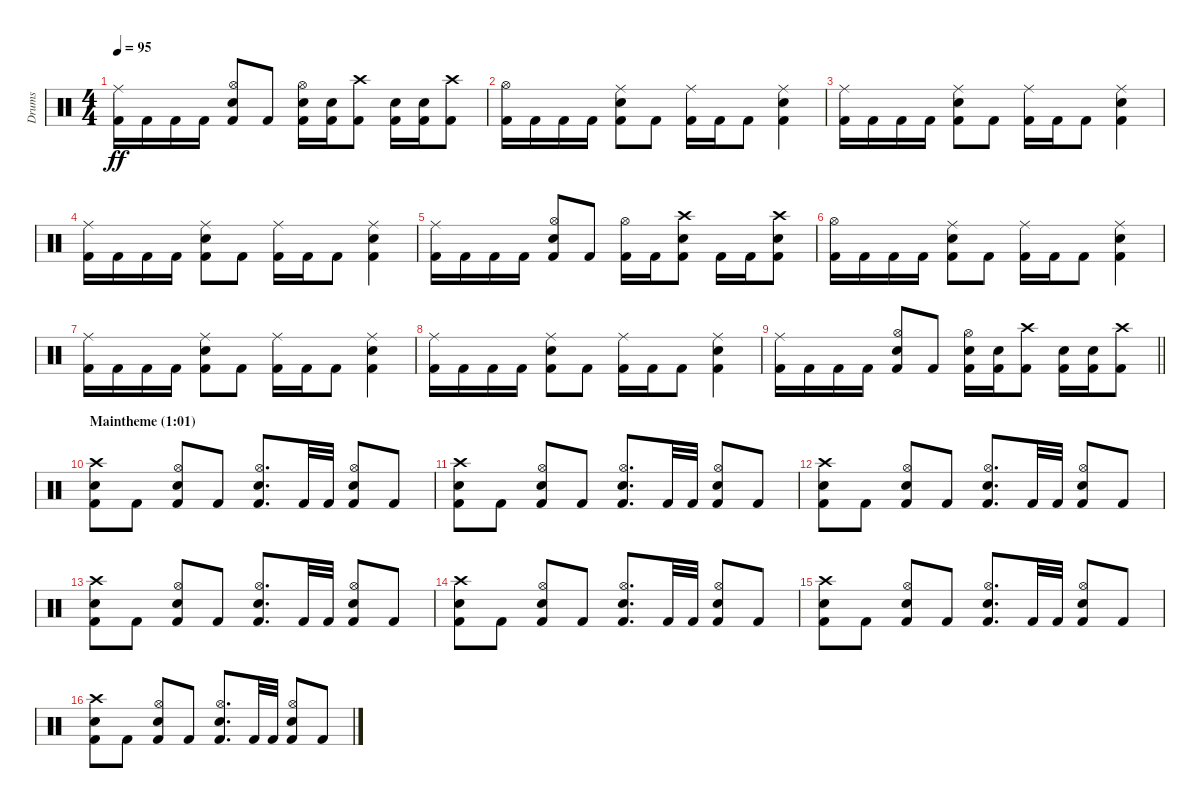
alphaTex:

\track ("Drums" "Drums") {instrument percussion}
\staff {score}
\articulation defaults
\ts (4 4)
\tempo 95
\clef neutral
\ks c
("Ride (middle)" "Kick (hit) 2").16{dy ff} "Kick (hit) 2".16 "Kick (hit) 2".16 "Kick (hit) 2".16 ("Hi-Hat (open)" "Snare (hit) 2" "Kick (hit) 2").8 "Kick (hit) 2".8 ("Hi-Hat (open)" "Snare (hit) 2" "Kick (hit) 2").16 ("Snare (hit) 2" "Kick (hit) 2").16 ("Crash high (hit)" "Kick (hit) 2").8 ("Snare (hit) 2" "Kick (hit) 2").16 ("Snare (hit) 2" "Kick (hit) 2").16 ("Crash high (hit)" "Kick (hit) 2").8 |
("Hi-Hat (open)" "Kick (hit) 2").16 "Kick (hit) 2".16 "Kick (hit) 2".16 "Kick (hit) 2".16 ("Ride (middle)" "Snare (hit) 2" "Kick (hit) 2").8 "Kick (hit) 2".8 ("Ride (middle)" "Kick (hit) 2").16 "Kick (hit) 2".16 "Kick (hit) 2".8 ("Ride (middle)" "Snare (hit) 2" "Kick (hit) 2").4 |
("Ride (middle)" "Kick (hit) 2").16 "Kick (hit) 2".16 "Kick (hit) 2".16 "Kick (hit) 2".16 ("Ride (middle)" "Snare (hit) 2" "Kick (hit) 2").8 "Kick (hit) 2".8 ("Ride (middle)" "Kick (hit) 2").16 "Kick (hit) 2".16 "Kick (hit) 2".8 ("Ride (middle)" "Snare (hit) 2" "Kick (hit) 2").4 |
("Ride (middle)" "Kick (hit) 2").16 "Kick (hit) 2".16 "Kick (hit) 2".16 "Kick (hit) 2".16 ("Ride (middle)" "Snare (hit) 2" "Kick (hit) 2").8 "Kick (hit) 2".8 ("Ride (middle)" "Kick (hit) 2").16 "Kick (hit) 2".16 "Kick (hit) 2".8 ("Ride (middle)" "Snare (hit) 2" "Kick (hit) 2").4 |
("Ride (middle)" "Kick (hit) 2").16 "Kick (hit) 2".16 "Kick (hit) 2".16 "Kick (hit) 2".16 ("Hi-Hat (open)" "Snare (hit) 2" "Kick (hit) 2").8 "Kick (hit) 2".8 ("Hi-Hat (open)" "Kick (hit) 2").16 "Kick (hit) 2".16 ("Crash high (hit)" "Snare (hit) 2" "Kick (hit) 2").8 "Kick (hit) 2".16 "Kick (hit) 2".16 ("Crash high (hit)" "Snare (hit) 2" "Kick (hit) 2").8 |
("Hi-Hat (open)" "Kick (hit) 2").16 "Kick (hit) 2".16 "Kick (hit) 2".16 "Kick (hit) 2".16 ("Ride (middle)" "Snare (hit) 2" "Kick (hit) 2").8 "Kick (hit) 2".8 ("Ride (middle)" "Kick (hit) 2").16 "Kick (hit) 2".16 "Kick (hit) 2".8 ("Ride (middle)" "Snare (hit) 2" "Kick (hit) 2").4 |
("Ride (middle)" "Kick (hit) 2").16 "Kick (hit) 2".16 "Kick (hit) 2".16 "Kick (hit) 2".16 ("Ride (middle)" "Snare (hit) 2" "Kick (hit) 2").8 "Kick (hit) 2".8 ("Ride (middle)" "Kick (hit) 2").16 "Kick (hit) 2".16 "Kick (hit) 2".8 ("Ride (middle)" "Snare (hit) 2" "Kick (hit) 2").4 |
("Ride (middle)" "Kick (hit) 2").16 "Kick (hit) 2".16 "Kick (hit) 2".16 "Kick (hit) 2".16 ("Ride (middle)" "Snare (hit) 2" "Kick (hit) 2").8 "Kick (hit) 2".8 ("Ride (middle)" "Kick (hit) 2").16 "Kick (hit) 2".16 "Kick (hit) 2".8 ("Ride (middle)" "Snare (hit) 2" "Kick (hit) 2").4 |
\barLineRight lightlight
("Ride (middle)" "Kick (hit) 2").16 "Kick (hit) 2".16 "Kick (hit) 2".16 "Kick (hit) 2".16 ("Hi-Hat (open)" "Snare (hit) 2" "Kick (hit) 2").8 "Kick (hit) 2".8 ("Hi-Hat (open)" "Snare (hit) 2" "Kick (hit) 2").16 ("Snare (hit) 2" "Kick (hit) 2").16 ("Crash high (hit)" "Kick (hit) 2").8 ("Snare (hit) 2" "Kick (hit) 2").16 ("Snare (hit) 2" "Kick (hit) 2").16 ("Crash high (hit)" "Kick (hit) 2").8 |
\section ("" "Maintheme (1:01)")
("Crash high (hit)" "Snare (hit) 2" "Kick (hit) 2").8 "Kick (hit) 2".8 ("Hi-Hat (open)" "Snare (hit) 2" "Kick (hit) 2").8 "Kick (hit) 2".8 ("Hi-Hat (open)" "Snare (hit) 2" "Kick (hit) 2").8{d} "Kick (hit) 2".32 "Kick (hit) 2".32 ("Hi-Hat (open)" "Snare (hit) 2" "Kick (hit) 2").8 "Kick (hit) 2".8 |
("Crash high (hit)" "Snare (hit) 2" "Kick (hit) 2").8 "Kick (hit) 2".8 ("Hi-Hat (open)" "Snare (hit) 2" "Kick (hit) 2").8 "Kick (hit) 2".8 ("Hi-Hat (open)" "Snare (hit) 2" "Kick (hit) 2").8{d} "Kick (hit) 2".32 "Kick (hit) 2".32 ("Hi-Hat (open)" "Snare (hit) 2" "Kick (hit) 2").8 "Kick (hit) 2".8 |
("Crash high (hit)" "Snare (hit) 2" "Kick (hit) 2").8 "Kick (hit) 2".8 ("Hi-Hat (open)" "Snare (hit) 2" "Kick (hit) 2").8 "Kick (hit) 2".8 ("Hi-Hat (open)" "Snare (hit) 2" "Kick (hit) 2").8{d} "Kick (hit) 2".32 "Kick (hit) 2".32 ("Hi-Hat (open)" "Snare (hit) 2" "Kick (hit) 2").8 "Kick (hit) 2".8 |
("Crash high (hit)" "Snare (hit) 2" "Kick (hit) 2").8 "Kick (hit) 2".8 ("Hi-Hat (open)" "Snare (hit) 2" "Kick (hit) 2").8 "Kick (hit) 2".8 ("Hi-Hat (open)" "Snare (hit) 2" "Kick (hit) 2").8{d} "Kick (hit) 2".32 "Kick (hit) 2".32 ("Hi-Hat (open)" "Snare (hit) 2" "Kick (hit) 2").8 "Kick (hit) 2".8 |
("Crash high (hit)" "Snare (hit) 2" "Kick (hit) 2").8 "Kick (hit) 2".8 ("Hi-Hat (open)" "Snare (hit) 2" "Kick (hit) 2").8 "Kick (hit) 2".8 ("Hi-Hat (open)" "Snare (hit) 2" "Kick (hit) 2").8{d} "Kick (hit) 2".32 "Kick (hit) 2".32 ("Hi-Hat (open)" "Snare (hit) 2" "Kick (hit) 2").8 "Kick (hit) 2".8 |
("Crash high (hit)" "Snare (hit) 2" "Kick (hit) 2").8 "Kick (hit) 2".8 ("Hi-Hat (open)" "Snare (hit) 2" "Kick (hit) 2").8 "Kick (hit) 2".8 ("Hi-Hat (open)" "Snare (hit) 2" "Kick (hit) 2").8{d} "Kick (hit) 2".32 "Kick (hit) 2".32 ("Hi-Hat (open)" "Snare (hit) 2" "Kick (hit) 2").8 "Kick (hit) 2".8 |
("Crash high (hit)" "Snare (hit) 2" "Kick (hit) 2").8 "Kick (hit) 2".8 ("Hi-Hat (open)" "Snare (hit) 2" "Kick (hit) 2").8 "Kick (hit) 2".8 ("Hi-Hat (open)" "Snare (hit) 2" "Kick (hit) 2").8{d} "Kick (hit) 2".32 "Kick (hit) 2".32 ("Hi-Hat (open)" "Snare (hit) 2" "Kick (hit) 2").8 "Kick (hit) 2".8
